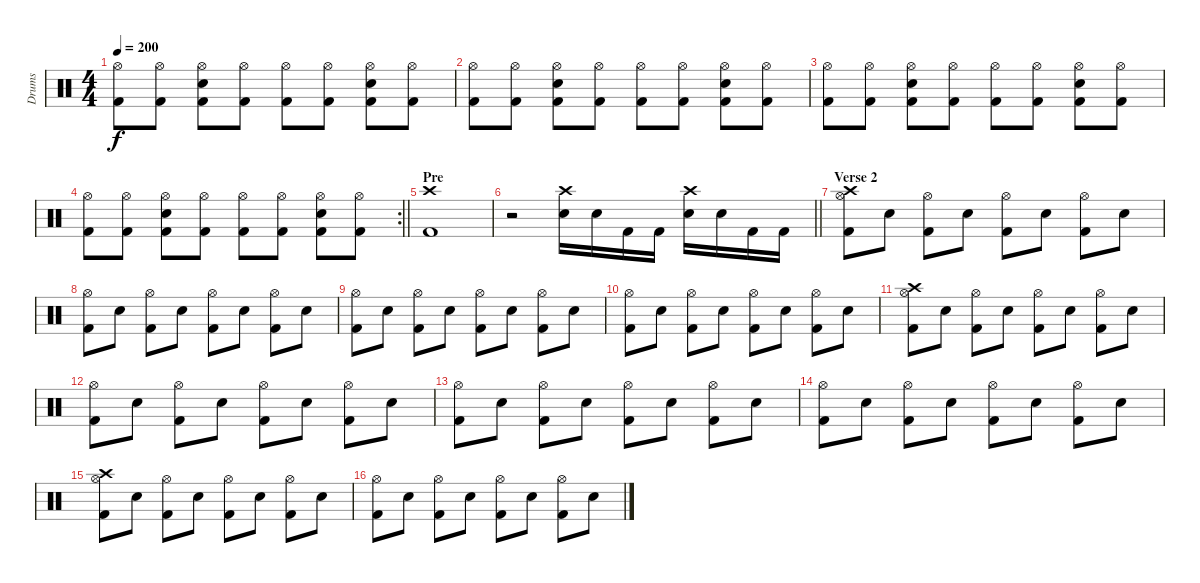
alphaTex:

\track ("Drums" "Drums") {instrument percussion}
\staff {score}
\articulation defaults
\ts (4 4)
\tempo 200
\clef neutral
\ks c
("Hi-Hat (open)" "Kick (hit) 2").8{dy f} ("Hi-Hat (open)" "Kick (hit) 2").8 ("Hi-Hat (open)" "Snare (hit) 2" "Kick (hit) 2").8 ("Hi-Hat (open)" "Kick (hit) 2").8 ("Hi-Hat (open)" "Kick (hit) 2").8 ("Hi-Hat (open)" "Kick (hit) 2").8 ("Hi-Hat (open)" "Snare (hit) 2" "Kick (hit) 2").8 ("Hi-Hat (open)" "Kick (hit) 2").8 |
("Hi-Hat (open)" "Kick (hit) 2").8 ("Hi-Hat (open)" "Kick (hit) 2").8 ("Hi-Hat (open)" "Snare (hit) 2" "Kick (hit) 2").8 ("Hi-Hat (open)" "Kick (hit) 2").8 ("Hi-Hat (open)" "Kick (hit) 2").8 ("Hi-Hat (open)" "Kick (hit) 2").8 ("Hi-Hat (open)" "Snare (hit) 2" "Kick (hit) 2").8 ("Hi-Hat (open)" "Kick (hit) 2").8 |
("Hi-Hat (open)" "Kick (hit) 2").8 ("Hi-Hat (open)" "Kick (hit) 2").8 ("Hi-Hat (open)" "Snare (hit) 2" "Kick (hit) 2").8 ("Hi-Hat (open)" "Kick (hit) 2").8 ("Hi-Hat (open)" "Kick (hit) 2").8 ("Hi-Hat (open)" "Kick (hit) 2").8 ("Hi-Hat (open)" "Snare (hit) 2" "Kick (hit) 2").8 ("Hi-Hat (open)" "Kick (hit) 2").8 |
\rc 2
\barLineRight lightlight
("Hi-Hat (open)" "Kick (hit) 2").8 ("Hi-Hat (open)" "Kick (hit) 2").8 ("Hi-Hat (open)" "Snare (hit) 2" "Kick (hit) 2").8 ("Hi-Hat (open)" "Kick (hit) 2").8 ("Hi-Hat (open)" "Kick (hit) 2").8 ("Hi-Hat (open)" "Kick (hit) 2").8 ("Hi-Hat (open)" "Snare (hit) 2" "Kick (hit) 2").8 ("Hi-Hat (open)" "Kick (hit) 2").8 |
\section ("" "Pre")
("Crash high (hit)" "Kick (hit) 2").1 |
\barLineRight lightlight
r.2 ("Crash high (hit)" "Snare (hit) 2").16 "Snare (hit) 2".16 "Kick (hit) 2".16 "Kick (hit) 2".16 ("Crash high (hit)" "Snare (hit) 2").16 "Snare (hit) 2".16 "Kick (hit) 2".16 "Kick (hit) 2".16 |
\section ("" "Verse 2")
("Crash high (hit)" "Hi-Hat (open)" "Kick (hit) 2").8 "Snare (hit) 2".8 ("Hi-Hat (open)" "Kick (hit) 2").8 "Snare (hit) 2".8 ("Hi-Hat (open)" "Kick (hit) 2").8 "Snare (hit) 2".8 ("Hi-Hat (open)" "Kick (hit) 2").8 "Snare (hit) 2".8 |
("Hi-Hat (open)" "Kick (hit) 2").8 "Snare (hit) 2".8 ("Hi-Hat (open)" "Kick (hit) 2").8 "Snare (hit) 2".8 ("Hi-Hat (open)" "Kick (hit) 2").8 "Snare (hit) 2".8 ("Hi-Hat (open)" "Kick (hit) 2").8 "Snare (hit) 2".8 |
("Hi-Hat (open)" "Kick (hit) 2").8 "Snare (hit) 2".8 ("Hi-Hat (open)" "Kick (hit) 2").8 "Snare (hit) 2".8 ("Hi-Hat (open)" "Kick (hit) 2").8 "Snare (hit) 2".8 ("Hi-Hat (open)" "Kick (hit) 2").8 "Snare (hit) 2".8 |
("Hi-Hat (open)" "Kick (hit) 2").8 "Snare (hit) 2".8 ("Hi-Hat (open)" "Kick (hit) 2").8 "Snare (hit) 2".8 ("Hi-Hat (open)" "Kick (hit) 2").8 "Snare (hit) 2".8 ("Hi-Hat (open)" "Kick (hit) 2").8 "Snare (hit) 2".8 |
("Crash high (hit)" "Hi-Hat (open)" "Kick (hit) 2").8 "Snare (hit) 2".8 ("Hi-Hat (open)" "Kick (hit) 2").8 "Snare (hit) 2".8 ("Hi-Hat (open)" "Kick (hit) 2").8 "Snare (hit) 2".8 ("Hi-Hat (open)" "Kick (hit) 2").8 "Snare (hit) 2".8 |
("Hi-Hat (open)" "Kick (hit) 2").8 "Snare (hit) 2".8 ("Hi-Hat (open)" "Kick (hit) 2").8 "Snare (hit) 2".8 ("Hi-Hat (open)" "Kick (hit) 2").8 "Snare (hit) 2".8 ("Hi-Hat (open)" "Kick (hit) 2").8 "Snare (hit) 2".8 |
("Hi-Hat (open)" "Kick (hit) 2").8 "Snare (hit) 2".8 ("Hi-Hat (open)" "Kick (hit) 2").8 "Snare (hit) 2".8 ("Hi-Hat (open)" "Kick (hit) 2").8 "Snare (hit) 2".8 ("Hi-Hat (open)" "Kick (hit) 2").8 "Snare (hit) 2".8 |
("Hi-Hat (open)" "Kick (hit) 2").8 "Snare (hit) 2".8 ("Hi-Hat (open)" "Kick (hit) 2").8 "Snare (hit) 2".8 ("Hi-Hat (open)" "Kick (hit) 2").8 "Snare (hit) 2".8 ("Hi-Hat (open)" "Kick (hit) 2").8 "Snare (hit) 2".8 |
("Crash high (hit)" "Hi-Hat (open)" "Kick (hit) 2").8 "Snare (hit) 2".8 ("Hi-Hat (open)" "Kick (hit) 2").8 "Snare (hit) 2".8 ("Hi-Hat (open)" "Kick (hit) 2").8 "Snare (hit) 2".8 ("Hi-Hat (open)" "Kick (hit) 2").8 "Snare (hit) 2".8 |
("Hi-Hat (open)" "Kick (hit) 2").8 "Snare (hit) 2".8 ("Hi-Hat (open)" "Kick (hit) 2").8 "Snare (hit) 2".8 ("Hi-Hat (open)" "Kick (hit) 2").8 "Snare (hit) 2".8 ("Hi-Hat (open)" "Kick (hit) 2").8 "Snare (hit) 2".8
